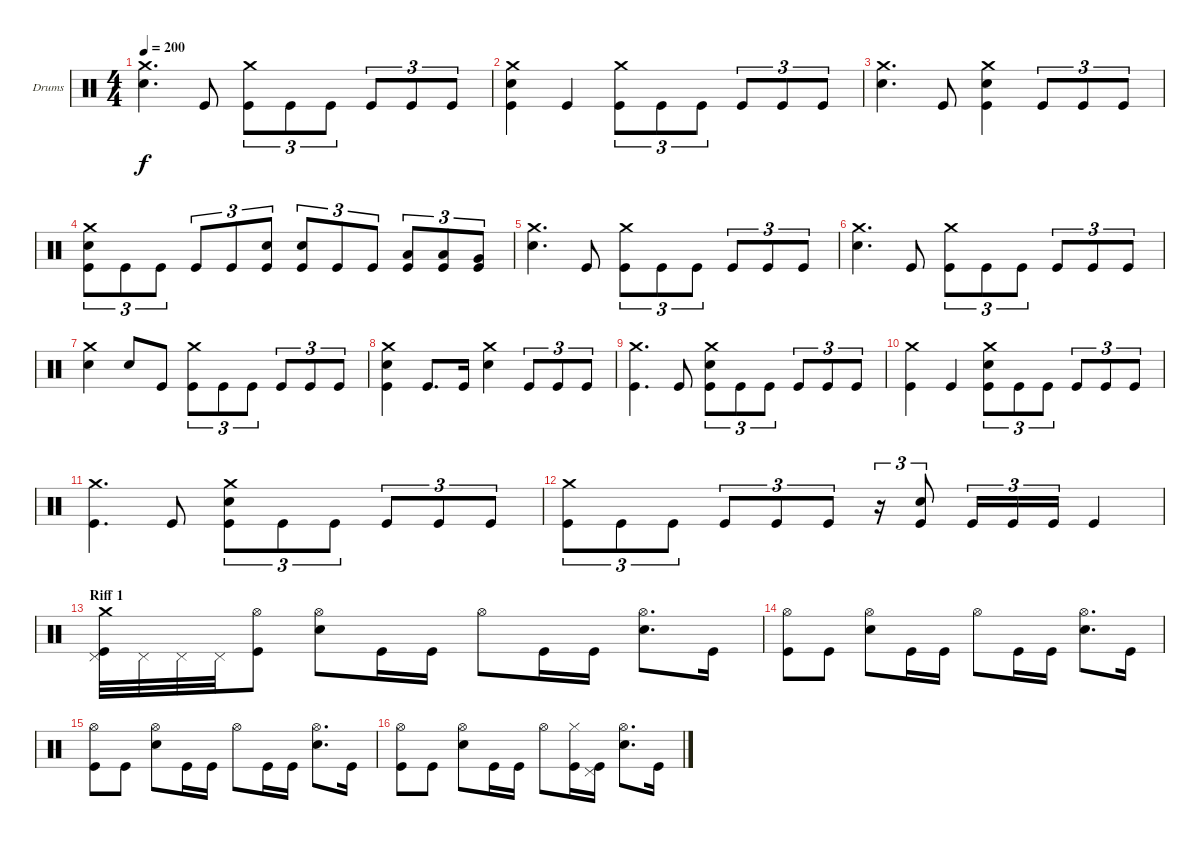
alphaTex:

\bracketExtendMode groupsimilarinstruments
\firstSystemTrackNameOrientation horizontal
\otherSystemsTrackNameOrientation horizontal
\track ("Drumkit" "Drums") {multiBarRest instrument percussion}
\staff {score}
\articulation defaults
\ts (4 4)
\tempo 200
\clef neutral
\ks c
("Crash medium (hit)" "Snare (hit) 2").4{d dy f} "Kick (hit)".8 ("Crash medium (hit)" "Kick (hit)").8{tu (3 2)} "Kick (hit)".8{tu (3 2)} "Kick (hit)".8{tu (3 2)} "Kick (hit)".8{tu (3 2)} "Kick (hit)".8{tu (3 2)} "Kick (hit)".8{tu (3 2)} |
("Crash medium (hit)" "Snare (hit) 2" "Kick (hit)").4 "Kick (hit)".4 ("Crash medium (hit)" "Kick (hit)").8{tu (3 2)} "Kick (hit)".8{tu (3 2)} "Kick (hit)".8{tu (3 2)} "Kick (hit)".8{tu (3 2)} "Kick (hit)".8{tu (3 2)} "Kick (hit)".8{tu (3 2)} |
("Crash medium (hit)" "Snare (hit) 2").4{d} "Kick (hit)".8 ("Crash medium (hit)" "Snare (hit) 2" "Kick (hit)").4 "Kick (hit)".8{tu (3 2)} "Kick (hit)".8{tu (3 2)} "Kick (hit)".8{tu (3 2)} |
("Crash medium (hit)" "Snare (hit) 2" "Kick (hit)").8{tu (3 2)} "Kick (hit)".8{tu (3 2)} "Kick (hit)".8{tu (3 2)} "Kick (hit)".8{tu (3 2)} "Kick (hit)".8{tu (3 2)} ("Snare (hit) 2" "Kick (hit)").8{tu (3 2)} ("Snare (hit) 2" "Kick (hit)").8{tu (3 2)} "Kick (hit)".8{tu (3 2)} "Kick (hit)".8{tu (3 2)} ("Low Tom (hit)" "Kick (hit)").8{tu (3 2)} ("Low Tom (hit)" "Kick (hit)").8{tu (3 2)} ("Very Low Tom (hit)" "Kick (hit)").8{tu (3 2)} |
("Crash medium (hit)" "Snare (hit) 2").4{d} "Kick (hit)".8 ("Crash medium (hit)" "Kick (hit)").8{tu (3 2)} "Kick (hit)".8{tu (3 2)} "Kick (hit)".8{tu (3 2)} "Kick (hit)".8{tu (3 2)} "Kick (hit)".8{tu (3 2)} "Kick (hit)".8{tu (3 2)} |
("Crash medium (hit)" "Snare (hit) 2").4{d} "Kick (hit)".8 ("Crash medium (hit)" "Kick (hit)").8{tu (3 2)} "Kick (hit)".8{tu (3 2)} "Kick (hit)".8{tu (3 2)} "Kick (hit)".8{tu (3 2)} "Kick (hit)".8{tu (3 2)} "Kick (hit)".8{tu (3 2)} |
("Crash medium (hit)" "Snare (hit) 2").4 "Snare (hit) 2".8 "Kick (hit)".8 ("Crash medium (hit)" "Kick (hit)").8{tu (3 2)} "Kick (hit)".8{tu (3 2)} "Kick (hit)".8{tu (3 2)} "Kick (hit)".8{tu (3 2)} "Kick (hit)".8{tu (3 2)} "Kick (hit)".8{tu (3 2)} |
("Crash medium (hit)" "Snare (hit) 2" "Kick (hit)").4 "Kick (hit)".8{d} "Kick (hit)".16 ("Crash medium (hit)" "Snare (hit) 2").4 "Kick (hit)".8{tu (3 2)} "Kick (hit)".8{tu (3 2)} "Kick (hit)".8{tu (3 2)} |
("Crash medium (hit)" "Kick (hit)").4{d} "Kick (hit)".8 ("Crash medium (hit)" "Snare (hit) 2" "Kick (hit)").8{tu (3 2)} "Kick (hit)".8{tu (3 2)} "Kick (hit)".8{tu (3 2)} "Kick (hit)".8{tu (3 2)} "Kick (hit)".8{tu (3 2)} "Kick (hit)".8{tu (3 2)} |
("Crash medium (hit)" "Kick (hit)").4 "Kick (hit)".4 ("Crash medium (hit)" "Snare (hit) 2" "Kick (hit)").8{tu (3 2)} "Kick (hit)".8{tu (3 2)} "Kick (hit)".8{tu (3 2)} "Kick (hit)".8{tu (3 2)} "Kick (hit)".8{tu (3 2)} "Kick (hit)".8{tu (3 2)} |
("Crash medium (hit)" "Kick (hit)").4{d} "Kick (hit)".8 ("Crash medium (hit)" "Snare (hit) 2" "Kick (hit)").8{tu (3 2)} "Kick (hit)".8{tu (3 2)} "Kick (hit)".8{tu (3 2)} "Kick (hit)".8{tu (3 2)} "Kick (hit)".8{tu (3 2)} "Kick (hit)".8{tu (3 2)} |
("Crash medium (hit)" "Kick (hit)").8{tu (3 2)} "Kick (hit)".8{tu (3 2)} "Kick (hit)".8{tu (3 2)} "Kick (hit)".8{tu (3 2)} "Kick (hit)".8{tu (3 2)} "Kick (hit)".8{tu (3 2)} r.16{tu (3 2)} ("Snare (hit) 2" "Kick (hit)").8{tu (3 2)} "Kick (hit)".16{tu (3 2)} "Kick (hit)".16{tu (3 2)} "Kick (hit)".16{tu (3 2)} "Kick (hit)".4 |
\section ("" "Riff 1")
("Pedal Hi-Hat (hit)" "Crash medium (hit)" "Kick (hit)").32 "Pedal Hi-Hat (hit)".32 "Pedal Hi-Hat (hit)".32 "Pedal Hi-Hat (hit)".32 ("Hi-Hat (open)" "Kick (hit)").8 ("Hi-Hat (open)" "Snare (hit) 2").8 "Kick (hit)".16 "Kick (hit)".16 "Hi-Hat (open)".8 "Kick (hit)".16 "Kick (hit)".16 ("Hi-Hat (open)" "Snare (hit) 2").8{d} "Kick (hit)".16 |
("Hi-Hat (open)" "Kick (hit)").8 "Kick (hit)".8 ("Hi-Hat (open)" "Snare (hit) 2").8 "Kick (hit)".16 "Kick (hit)".16 "Hi-Hat (open)".8 "Kick (hit)".16 "Kick (hit)".16 ("Hi-Hat (open)" "Snare (hit) 2").8{d} "Kick (hit)".16 |
("Hi-Hat (open)" "Kick (hit)").8 "Kick (hit)".8 ("Hi-Hat (open)" "Snare (hit) 2").8 "Kick (hit)".16 "Kick (hit)".16 "Hi-Hat (open)".8 "Kick (hit)".16 "Kick (hit)".16 ("Hi-Hat (open)" "Snare (hit) 2").8{d} "Kick (hit)".16 |
("Hi-Hat (open)" "Kick (hit)").8 "Kick (hit)".8 ("Hi-Hat (open)" "Snare (hit) 2").8 "Kick (hit)".16 "Kick (hit)".16 "Hi-Hat (open)".8 ("Hi-Hat (closed)" "Kick (hit)").16 ("Pedal Hi-Hat (hit)" "Kick (hit)").16 ("Hi-Hat (open)" "Snare (hit) 2").8{d} "Kick (hit)".16
